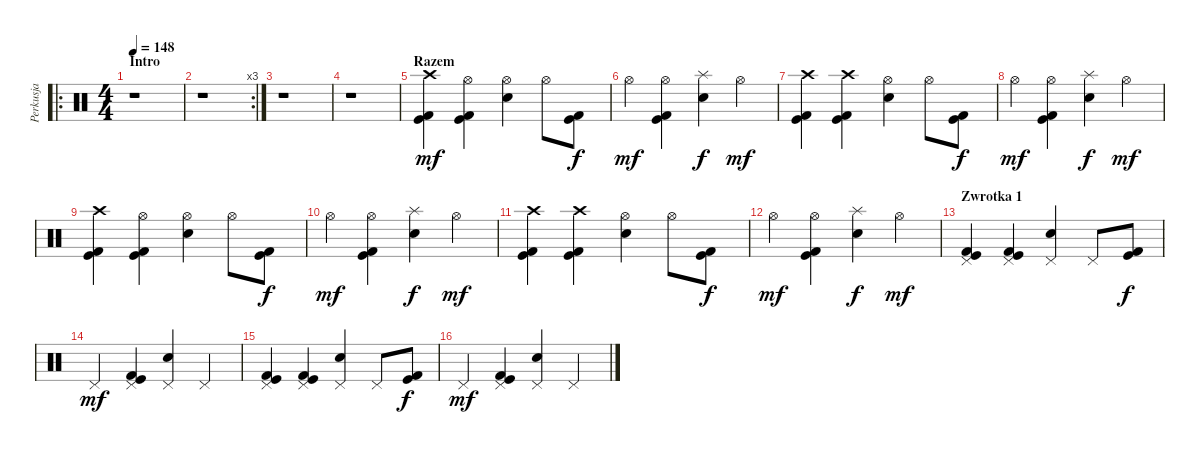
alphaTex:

\track ("Perkusja" "Perkusja") {instrument percussion}
\staff {score}
\articulation defaults
\ro
\ts (4 4)
\section ("" "Intro")
\tempo 148
\clef neutral
\ks c
r.1{dy mf} |
\rc 3
r.1 |
r.1 |
r.1 |
\section ("" "Razem")
("Kick (hit) 2" "Kick (hit)" "Crash high (hit)").4 ("Kick (hit) 2" "Kick (hit)" "Hi-Hat (open)").4 ("Snare (hit) 2" "Hi-Hat (open)").4 "Hi-Hat (open)".8 ("Kick (hit) 2" "Kick (hit)").8{dy f} |
"Hi-Hat (open)".4{dy mf} ("Kick (hit)" "Kick (hit) 2" "Hi-Hat (open)").4 ("Snare (hit) 2" "Splash (hit)").4{dy f} "Hi-Hat (open)".4{dy mf} |
("Kick (hit) 2" "Kick (hit)" "Crash high (hit)").4 ("Kick (hit) 2" "Kick (hit)" "Crash high (hit)").4 ("Snare (hit) 2" "Hi-Hat (open)").4 "Hi-Hat (open)".8 ("Kick (hit) 2" "Kick (hit)").8{dy f} |
"Hi-Hat (open)".4{dy mf} ("Kick (hit)" "Kick (hit) 2" "Hi-Hat (open)").4 ("Snare (hit) 2" "Splash (hit)").4{dy f} "Hi-Hat (open)".4{dy mf} |
("Kick (hit) 2" "Kick (hit)" "Crash high (hit)").4 ("Kick (hit) 2" "Kick (hit)" "Hi-Hat (open)").4 ("Snare (hit) 2" "Hi-Hat (open)").4 "Hi-Hat (open)".8 ("Kick (hit) 2" "Kick (hit)").8{dy f} |
"Hi-Hat (open)".4{dy mf} ("Kick (hit)" "Kick (hit) 2" "Hi-Hat (open)").4 ("Snare (hit) 2" "Splash (hit)").4{dy f} "Hi-Hat (open)".4{dy mf} |
("Kick (hit) 2" "Kick (hit)" "Crash high (hit)").4 ("Kick (hit) 2" "Kick (hit)" "Crash high (hit)").4 ("Snare (hit) 2" "Hi-Hat (open)").4 "Hi-Hat (open)".8 ("Kick (hit) 2" "Kick (hit)").8{dy f} |
"Hi-Hat (open)".4{dy mf} ("Kick (hit)" "Kick (hit) 2" "Hi-Hat (open)").4 ("Snare (hit) 2" "Splash (hit)").4{dy f} "Hi-Hat (open)".4{dy mf} |
\section ("" "Zwrotka 1")
("Kick (hit) 2" "Kick (hit)" "Pedal Hi-Hat (hit)").4 ("Kick (hit) 2" "Kick (hit)" "Pedal Hi-Hat (hit)").4 ("Snare (hit) 2" "Pedal Hi-Hat (hit)").4 "Pedal Hi-Hat (hit)".8 ("Kick (hit) 2" "Kick (hit)").8{dy f} |
"Pedal Hi-Hat (hit)".4{dy mf} ("Kick (hit)" "Kick (hit) 2" "Pedal Hi-Hat (hit)").4 ("Snare (hit) 2" "Pedal Hi-Hat (hit)").4 "Pedal Hi-Hat (hit)".4 |
("Kick (hit) 2" "Kick (hit)" "Pedal Hi-Hat (hit)").4 ("Kick (hit) 2" "Kick (hit)" "Pedal Hi-Hat (hit)").4 ("Snare (hit) 2" "Pedal Hi-Hat (hit)").4 "Pedal Hi-Hat (hit)".8 ("Kick (hit) 2" "Kick (hit)").8{dy f} |
"Pedal Hi-Hat (hit)".4{dy mf} ("Kick (hit)" "Kick (hit) 2" "Pedal Hi-Hat (hit)").4 ("Snare (hit) 2" "Pedal Hi-Hat (hit)").4 "Pedal Hi-Hat (hit)".4
